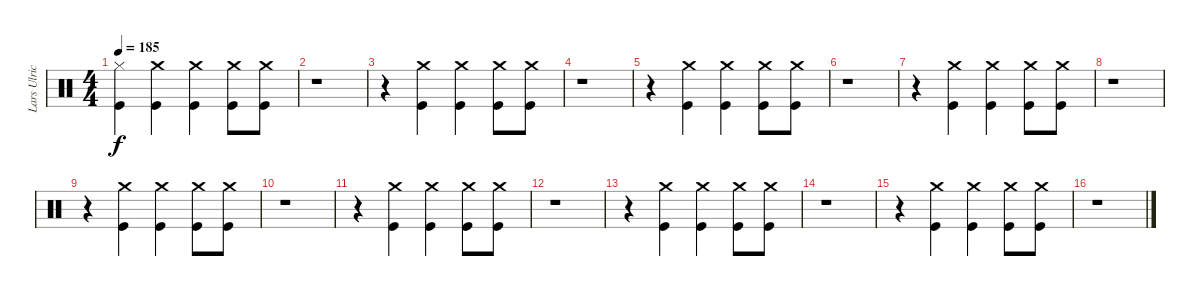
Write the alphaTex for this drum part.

\track ("Lars Ulrich (Drums)" "Lars Ulric") {instrument percussion}
\staff {score}
\articulation defaults
\ts (4 4)
\tempo 185
\clef neutral
\ks c
("Kick (hit)" "Hi-Hat (closed)").4{dy f} ("Crash medium (hit)" "Kick (hit)").4 ("Crash medium (hit)" "Kick (hit)").4 ("Kick (hit)" "Crash medium (hit)").8 ("Kick (hit)" "Crash medium (hit)").8 |
r.1 |
r.4 ("Kick (hit)" "Crash medium (hit)").4 ("Kick (hit)" "Crash medium (hit)").4 ("Kick (hit)" "Crash medium (hit)").8 ("Kick (hit)" "Crash medium (hit)").8 |
r.1 |
r.4 ("Crash medium (hit)" "Kick (hit)").4 ("Crash medium (hit)" "Kick (hit)").4 ("Kick (hit)" "Crash medium (hit)").8 ("Kick (hit)" "Crash medium (hit)").8 |
r.1 |
r.4 ("Kick (hit)" "Crash medium (hit)").4 ("Kick (hit)" "Crash medium (hit)").4 ("Kick (hit)" "Crash medium (hit)").8 ("Kick (hit)" "Crash medium (hit)").8 |
r.1 |
r.4 ("Crash medium (hit)" "Kick (hit)").4 ("Crash medium (hit)" "Kick (hit)").4 ("Kick (hit)" "Crash medium (hit)").8 ("Kick (hit)" "Crash medium (hit)").8 |
r.1 |
r.4 ("Kick (hit)" "Crash medium (hit)").4 ("Kick (hit)" "Crash medium (hit)").4 ("Kick (hit)" "Crash medium (hit)").8 ("Kick (hit)" "Crash medium (hit)").8 |
r.1 |
r.4 ("Crash medium (hit)" "Kick (hit)").4 ("Crash medium (hit)" "Kick (hit)").4 ("Kick (hit)" "Crash medium (hit)").8 ("Kick (hit)" "Crash medium (hit)").8 |
r.1 |
r.4 ("Kick (hit)" "Crash medium (hit)").4 ("Kick (hit)" "Crash medium (hit)").4 ("Kick (hit)" "Crash medium (hit)").8 ("Kick (hit)" "Crash medium (hit)").8 |
r.1
